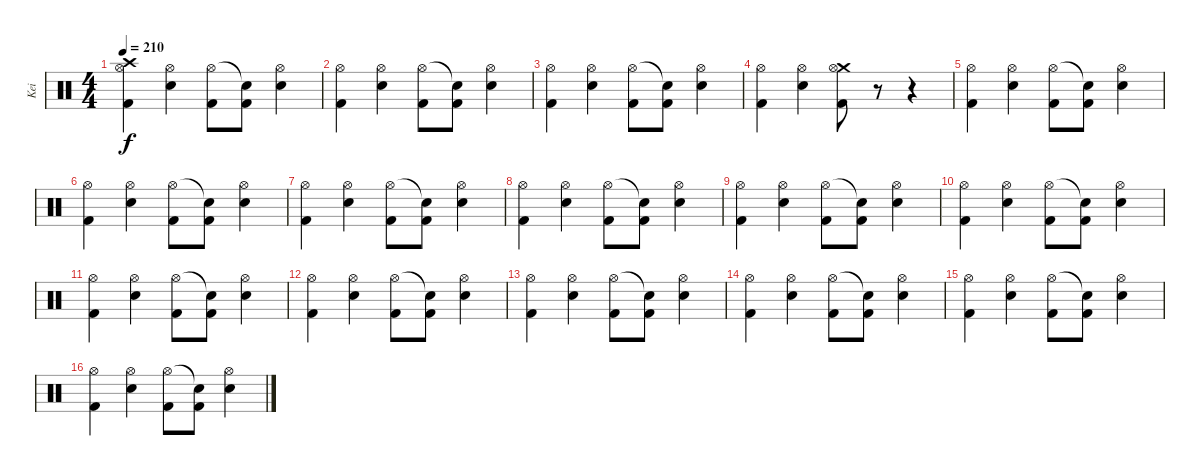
\track ("Kei" "Kei") {instrument percussion}
\staff {score}
\articulation defaults
\ts (4 4)
\tempo 210
\clef neutral
\ks c
("Crash high (hit)" "Hi-Hat (open)" "Kick (hit) 2").4{dy f} ("Hi-Hat (open)" "Electric Snare (hit)").4 ("Hi-Hat (open)" "Kick (hit) 2").8 ("Snare (hit)"{t} "Kick (hit) 2").8 ("Hi-Hat (open)" "Electric Snare (hit)").4 |
("Hi-Hat (open)" "Kick (hit) 2").4 ("Hi-Hat (open)" "Electric Snare (hit)").4 ("Hi-Hat (open)" "Kick (hit) 2").8 ("Snare (hit)"{t} "Kick (hit) 2").8 ("Hi-Hat (open)" "Electric Snare (hit)").4 |
("Hi-Hat (open)" "Kick (hit) 2").4 ("Hi-Hat (open)" "Electric Snare (hit)").4 ("Hi-Hat (open)" "Kick (hit) 2").8 ("Snare (hit)"{t} "Kick (hit) 2").8 ("Hi-Hat (open)" "Electric Snare (hit)").4 |
("Hi-Hat (open)" "Kick (hit) 2").4 ("Hi-Hat (open)" "Electric Snare (hit)").4 ("Crash medium (hit)" "Hi-Hat (open)" "Kick (hit) 2").8 r.8 r.4 |
("Hi-Hat (open)" "Kick (hit) 2").4 ("Hi-Hat (open)" "Electric Snare (hit)").4 ("Hi-Hat (open)" "Kick (hit) 2").8 ("Snare (hit)"{t} "Kick (hit) 2").8 ("Hi-Hat (open)" "Electric Snare (hit)").4 |
("Hi-Hat (open)" "Kick (hit) 2").4 ("Hi-Hat (open)" "Electric Snare (hit)").4 ("Hi-Hat (open)" "Kick (hit) 2").8 ("Snare (hit)"{t} "Kick (hit) 2").8 ("Hi-Hat (open)" "Electric Snare (hit)").4 |
("Hi-Hat (open)" "Kick (hit) 2").4 ("Hi-Hat (open)" "Electric Snare (hit)").4 ("Hi-Hat (open)" "Kick (hit) 2").8 ("Snare (hit)"{t} "Kick (hit) 2").8 ("Hi-Hat (open)" "Electric Snare (hit)").4 |
("Hi-Hat (open)" "Kick (hit) 2").4 ("Hi-Hat (open)" "Electric Snare (hit)").4 ("Hi-Hat (open)" "Kick (hit) 2").8 ("Snare (hit)"{t} "Kick (hit) 2").8 ("Hi-Hat (open)" "Electric Snare (hit)").4 |
("Hi-Hat (open)" "Kick (hit) 2").4 ("Hi-Hat (open)" "Electric Snare (hit)").4 ("Hi-Hat (open)" "Kick (hit) 2").8 ("Snare (hit)"{t} "Kick (hit) 2").8 ("Hi-Hat (open)" "Electric Snare (hit)").4 |
("Hi-Hat (open)" "Kick (hit) 2").4 ("Hi-Hat (open)" "Electric Snare (hit)").4 ("Hi-Hat (open)" "Kick (hit) 2").8 ("Snare (hit)"{t} "Kick (hit) 2").8 ("Hi-Hat (open)" "Electric Snare (hit)").4 |
("Hi-Hat (open)" "Kick (hit) 2").4 ("Hi-Hat (open)" "Electric Snare (hit)").4 ("Hi-Hat (open)" "Kick (hit) 2").8 ("Snare (hit)"{t} "Kick (hit) 2").8 ("Hi-Hat (open)" "Electric Snare (hit)").4 |
("Hi-Hat (open)" "Kick (hit) 2").4 ("Hi-Hat (open)" "Electric Snare (hit)").4 ("Hi-Hat (open)" "Kick (hit) 2").8 ("Snare (hit)"{t} "Kick (hit) 2").8 ("Hi-Hat (open)" "Electric Snare (hit)").4 |
("Hi-Hat (open)" "Kick (hit) 2").4 ("Hi-Hat (open)" "Electric Snare (hit)").4 ("Hi-Hat (open)" "Kick (hit) 2").8 ("Snare (hit)"{t} "Kick (hit) 2").8 ("Hi-Hat (open)" "Electric Snare (hit)").4 |
("Hi-Hat (open)" "Kick (hit) 2").4 ("Hi-Hat (open)" "Electric Snare (hit)").4 ("Hi-Hat (open)" "Kick (hit) 2").8 ("Snare (hit)"{t} "Kick (hit) 2").8 ("Hi-Hat (open)" "Electric Snare (hit)").4 |
("Hi-Hat (open)" "Kick (hit) 2").4 ("Hi-Hat (open)" "Electric Snare (hit)").4 ("Hi-Hat (open)" "Kick (hit) 2").8 ("Snare (hit)"{t} "Kick (hit) 2").8 ("Hi-Hat (open)" "Electric Snare (hit)").4 |
("Hi-Hat (open)" "Kick (hit) 2").4 ("Hi-Hat (open)" "Electric Snare (hit)").4 ("Hi-Hat (open)" "Kick (hit) 2").8 ("Snare (hit)"{t} "Kick (hit) 2").8 ("Hi-Hat (open)" "Electric Snare (hit)").4
